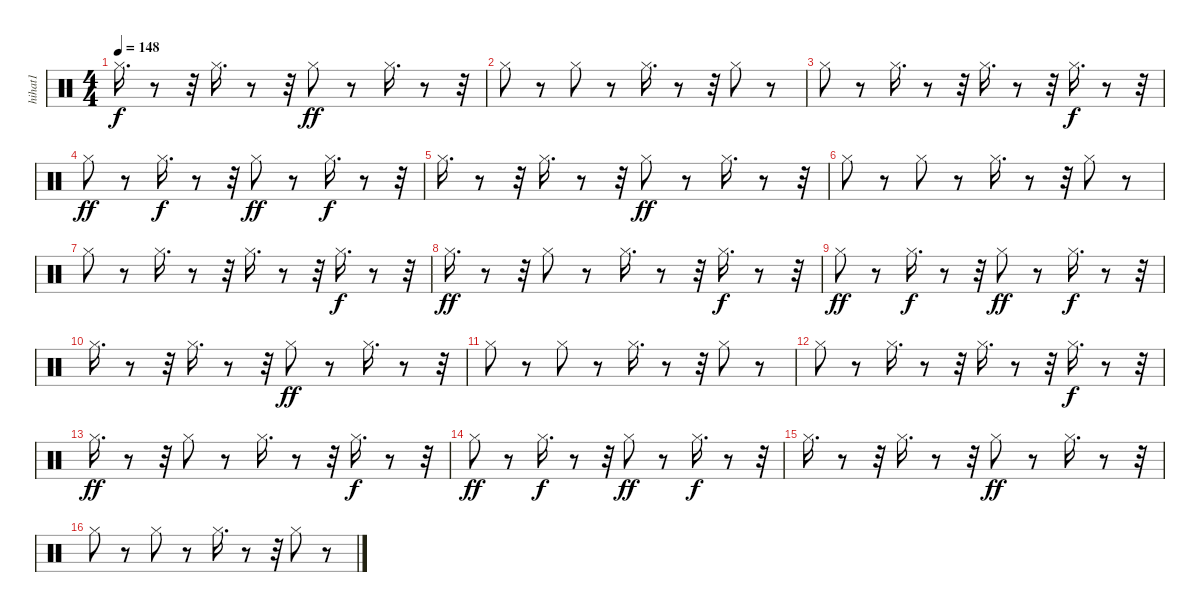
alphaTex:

\track ("hihat1              " "hihat1    ") {instrument percussion}
\staff {score}
\articulation defaults
\ts (4 4)
\tempo 148
\clef neutral
\ks c "Hi-Hat (closed)".16{d dy f}
r.8 r.32 "Hi-Hat (closed)".16{d} r.8 r.32 "Hi-Hat (closed)".8{dy ff} r.8 "Hi-Hat (closed)".16{d} r.8 r.32 |
"Hi-Hat (closed)".8 r.8 "Hi-Hat (closed)".8 r.8 "Hi-Hat (closed)".16{d} r.8 r.32 "Hi-Hat (closed)".8 r.8 |
"Hi-Hat (closed)".8 r.8 "Hi-Hat (closed)".16{d} r.8 r.32 "Hi-Hat (closed)".16{d} r.8 r.32 "Hi-Hat (closed)".16{d dy f} r.8 r.32 |
"Hi-Hat (closed)".8{dy ff} r.8 "Hi-Hat (closed)".16{d dy f} r.8 r.32 "Hi-Hat (closed)".8{dy ff} r.8 "Hi-Hat (closed)".16{d dy f} r.8 r.32 |
"Hi-Hat (closed)".16{d} r.8 r.32 "Hi-Hat (closed)".16{d} r.8 r.32 "Hi-Hat (closed)".8{dy ff} r.8 "Hi-Hat (closed)".16{d} r.8 r.32 |
"Hi-Hat (closed)".8 r.8 "Hi-Hat (closed)".8 r.8 "Hi-Hat (closed)".16{d} r.8 r.32 "Hi-Hat (closed)".8 r.8 |
"Hi-Hat (closed)".8 r.8 "Hi-Hat (closed)".16{d} r.8 r.32 "Hi-Hat (closed)".16{d} r.8 r.32 "Hi-Hat (closed)".16{d dy f} r.8 r.32 |
"Hi-Hat (closed)".16{d dy ff} r.8 r.32 "Hi-Hat (closed)".8 r.8 "Hi-Hat (closed)".16{d} r.8 r.32 "Hi-Hat (closed)".16{d dy f} r.8 r.32 |
"Hi-Hat (closed)".8{dy ff} r.8 "Hi-Hat (closed)".16{d dy f} r.8 r.32 "Hi-Hat (closed)".8{dy ff} r.8 "Hi-Hat (closed)".16{d dy f} r.8 r.32 |
"Hi-Hat (closed)".16{d} r.8 r.32 "Hi-Hat (closed)".16{d} r.8 r.32 "Hi-Hat (closed)".8{dy ff} r.8 "Hi-Hat (closed)".16{d} r.8 r.32 |
"Hi-Hat (closed)".8 r.8 "Hi-Hat (closed)".8 r.8 "Hi-Hat (closed)".16{d} r.8 r.32 "Hi-Hat (closed)".8 r.8 |
"Hi-Hat (closed)".8 r.8 "Hi-Hat (closed)".16{d} r.8 r.32 "Hi-Hat (closed)".16{d} r.8 r.32 "Hi-Hat (closed)".16{d dy f} r.8 r.32 |
"Hi-Hat (closed)".16{d dy ff} r.8 r.32 "Hi-Hat (closed)".8 r.8 "Hi-Hat (closed)".16{d} r.8 r.32 "Hi-Hat (closed)".16{d dy f} r.8 r.32 |
"Hi-Hat (closed)".8{dy ff} r.8 "Hi-Hat (closed)".16{d dy f} r.8 r.32 "Hi-Hat (closed)".8{dy ff} r.8 "Hi-Hat (closed)".16{d dy f} r.8 r.32 |
"Hi-Hat (closed)".16{d} r.8 r.32 "Hi-Hat (closed)".16{d} r.8 r.32 "Hi-Hat (closed)".8{dy ff} r.8 "Hi-Hat (closed)".16{d} r.8 r.32 |
"Hi-Hat (closed)".8 r.8 "Hi-Hat (closed)".8 r.8 "Hi-Hat (closed)".16{d} r.8 r.32 "Hi-Hat (closed)".8 r.8
